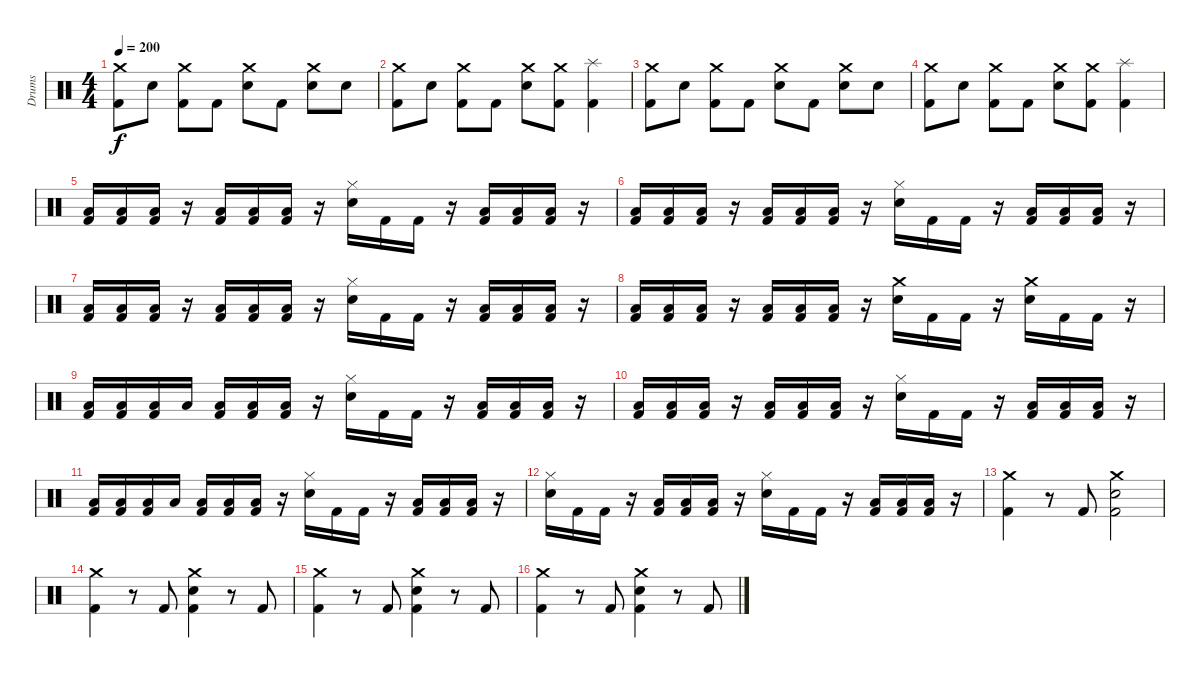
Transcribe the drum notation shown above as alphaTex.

\track ("Drums" "Drums") {instrument percussion}
\staff {score}
\articulation defaults
\ts (4 4)
\tempo 200
\clef neutral
\ks c
("Crash medium (hit)" "Kick (hit) 2").8{dy f} "Electric Snare (hit)".8 ("Crash medium (hit)" "Kick (hit) 2").8 "Kick (hit) 2".8 ("Crash medium (hit)" "Electric Snare (hit)").8 "Kick (hit) 2".8 ("Crash medium (hit)" "Electric Snare (hit)").8 "Electric Snare (hit)".8 |
("Crash medium (hit)" "Kick (hit) 2").8 "Electric Snare (hit)".8 ("Crash medium (hit)" "Kick (hit) 2").8 "Kick (hit) 2".8 ("Crash medium (hit)" "Electric Snare (hit)").8 ("Crash medium (hit)" "Kick (hit) 2").8 ("Splash (hit)" "Kick (hit) 2").4 |
("Crash medium (hit)" "Kick (hit) 2").8 "Electric Snare (hit)".8 ("Crash medium (hit)" "Kick (hit) 2").8 "Kick (hit) 2".8 ("Crash medium (hit)" "Electric Snare (hit)").8 "Kick (hit) 2".8 ("Crash medium (hit)" "Electric Snare (hit)").8 "Electric Snare (hit)".8 |
("Crash medium (hit)" "Kick (hit) 2").8 "Electric Snare (hit)".8 ("Crash medium (hit)" "Kick (hit) 2").8 "Kick (hit) 2".8 ("Crash medium (hit)" "Electric Snare (hit)").8 ("Crash medium (hit)" "Kick (hit) 2").8 ("Splash (hit)" "Kick (hit) 2").4 |
("Low Tom (hit)" "Kick (hit) 2").16 ("Low Tom (hit)" "Kick (hit) 2").16 ("Low Tom (hit)" "Kick (hit) 2").16 r.16 ("Low Floor Tom (hit)" "Kick (hit) 2").16 ("Low Floor Tom (hit)" "Kick (hit) 2").16 ("Low Floor Tom (hit)" "Kick (hit) 2").16 r.16 ("Hi-Hat (closed)" "Electric Snare (hit)").16 "Kick (hit) 2".16 "Kick (hit) 2".16 r.16 ("Low Floor Tom (hit)" "Kick (hit) 2").16 ("Low Floor Tom (hit)" "Kick (hit) 2").16 ("Low Floor Tom (hit)" "Kick (hit) 2").16 r.16 |
("Low Tom (hit)" "Kick (hit) 2").16 ("Low Tom (hit)" "Kick (hit) 2").16 ("Low Tom (hit)" "Kick (hit) 2").16 r.16 ("Low Floor Tom (hit)" "Kick (hit) 2").16 ("Low Floor Tom (hit)" "Kick (hit) 2").16 ("Low Floor Tom (hit)" "Kick (hit) 2").16 r.16 ("Hi-Hat (closed)" "Electric Snare (hit)").16 "Kick (hit) 2".16 "Kick (hit) 2".16 r.16 ("Low Floor Tom (hit)" "Kick (hit) 2").16 ("Low Floor Tom (hit)" "Kick (hit) 2").16 ("Low Floor Tom (hit)" "Kick (hit) 2").16 r.16 |
("Low Tom (hit)" "Kick (hit) 2").16 ("Low Tom (hit)" "Kick (hit) 2").16 ("Low Tom (hit)" "Kick (hit) 2").16 r.16 ("Low Floor Tom (hit)" "Kick (hit) 2").16 ("Low Floor Tom (hit)" "Kick (hit) 2").16 ("Low Floor Tom (hit)" "Kick (hit) 2").16 r.16 ("Hi-Hat (closed)" "Electric Snare (hit)").16 "Kick (hit) 2".16 "Kick (hit) 2".16 r.16 ("Low Floor Tom (hit)" "Kick (hit) 2").16 ("Low Floor Tom (hit)" "Kick (hit) 2").16 ("Low Floor Tom (hit)" "Kick (hit) 2").16 r.16 |
("Low Tom (hit)" "Kick (hit) 2").16 ("Low Tom (hit)" "Kick (hit) 2").16 ("Low Tom (hit)" "Kick (hit) 2").16 r.16 ("Low Floor Tom (hit)" "Kick (hit) 2").16 ("Low Floor Tom (hit)" "Kick (hit) 2").16 ("Low Floor Tom (hit)" "Kick (hit) 2").16 r.16 ("Crash medium (hit)" "Electric Snare (hit)").16 "Kick (hit) 2".16 "Kick (hit) 2".16 r.16 ("Crash medium (hit)" "Electric Snare (hit)").16 "Kick (hit) 2".16 "Kick (hit) 2".16 r.16 |
("Low Tom (hit)" "Kick (hit) 2").16 ("Low Tom (hit)" "Kick (hit) 2").16 ("Low Floor Tom (hit)" "Kick (hit) 2").16 "Low Floor Tom (hit)".16 ("Low Tom (hit)" "Kick (hit) 2").16 ("Low Floor Tom (hit)" "Kick (hit) 2").16 ("Low Floor Tom (hit)" "Kick (hit) 2").16 r.16 ("Hi-Hat (closed)" "Electric Snare (hit)").16 "Kick (hit) 2".16 "Kick (hit) 2".16 r.16 ("Low Floor Tom (hit)" "Kick (hit) 2").16 ("Low Floor Tom (hit)" "Kick (hit) 2").16 ("Low Floor Tom (hit)" "Kick (hit) 2").16 r.16 |
("Low Tom (hit)" "Kick (hit) 2").16 ("Low Tom (hit)" "Kick (hit) 2").16 ("Low Tom (hit)" "Kick (hit) 2").16 r.16 ("Low Floor Tom (hit)" "Kick (hit) 2").16 ("Low Floor Tom (hit)" "Kick (hit) 2").16 ("Low Floor Tom (hit)" "Kick (hit) 2").16 r.16 ("Hi-Hat (closed)" "Electric Snare (hit)").16 "Kick (hit) 2".16 "Kick (hit) 2".16 r.16 ("Low Floor Tom (hit)" "Kick (hit) 2").16 ("Low Floor Tom (hit)" "Kick (hit) 2").16 ("Low Floor Tom (hit)" "Kick (hit) 2").16 r.16 |
("Low Tom (hit)" "Kick (hit) 2").16 ("Low Tom (hit)" "Kick (hit) 2").16 ("Low Floor Tom (hit)" "Kick (hit) 2").16 "Low Floor Tom (hit)".16 ("Low Tom (hit)" "Kick (hit) 2").16 ("Low Floor Tom (hit)" "Kick (hit) 2").16 ("Low Floor Tom (hit)" "Kick (hit) 2").16 r.16 ("Hi-Hat (closed)" "Electric Snare (hit)").16 "Kick (hit) 2".16 "Kick (hit) 2".16 r.16 ("Low Floor Tom (hit)" "Kick (hit) 2").16 ("Low Floor Tom (hit)" "Kick (hit) 2").16 ("Low Floor Tom (hit)" "Kick (hit) 2").16 r.16 |
("Hi-Hat (closed)" "Electric Snare (hit)").16 "Kick (hit) 2".16 "Kick (hit) 2".16 r.16 ("Low Floor Tom (hit)" "Kick (hit) 2").16 ("Low Floor Tom (hit)" "Kick (hit) 2").16 ("Low Floor Tom (hit)" "Kick (hit) 2").16 r.16 ("Hi-Hat (closed)" "Electric Snare (hit)").16 "Kick (hit) 2".16 "Kick (hit) 2".16 r.16 ("Low Floor Tom (hit)" "Kick (hit) 2").16 ("Low Floor Tom (hit)" "Kick (hit) 2").16 ("Low Floor Tom (hit)" "Kick (hit) 2").16 r.16 |
("Crash medium (hit)" "Kick (hit) 2").4 r.8 "Kick (hit) 2".8 ("Crash medium (hit)" "Electric Snare (hit)" "Kick (hit) 2").2 |
("Crash medium (hit)" "Kick (hit) 2").4 r.8 "Kick (hit) 2".8 ("Crash medium (hit)" "Electric Snare (hit)" "Kick (hit) 2").4 r.8 "Kick (hit) 2".8 |
("Crash medium (hit)" "Kick (hit) 2").4 r.8 "Kick (hit) 2".8 ("Crash medium (hit)" "Electric Snare (hit)" "Kick (hit) 2").4 r.8 "Kick (hit) 2".8 |
("Crash medium (hit)" "Kick (hit) 2").4 r.8 "Kick (hit) 2".8 ("Crash medium (hit)" "Electric Snare (hit)" "Kick (hit) 2").4 r.8 "Kick (hit) 2".8
